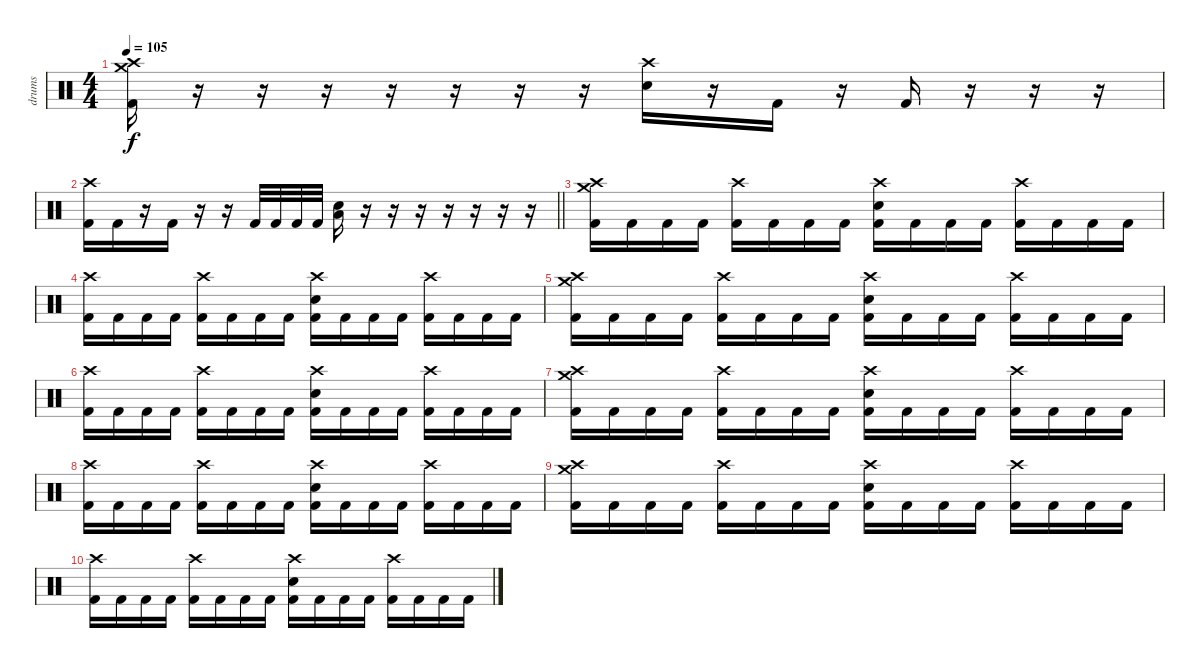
\track ("drums" "drums") {instrument percussion}
\staff {score}
\articulation defaults
\ts (4 4)
\tempo 105
\clef neutral
\ks c
("Crash medium (hit)" "Crash high (hit)" "Kick (hit) 2").16{dy f} r.16 r.16 r.16 r.16 r.16 r.16 r.16 ("Crash high (hit)" "Electric Snare (hit)").16 r.16 "Kick (hit) 2".16 r.16 "Kick (hit) 2".16 r.16 r.16 r.16 |
\barLineRight lightlight
("Crash high (hit)" "Kick (hit) 2").16 "Kick (hit) 2".16 r.16 "Kick (hit) 2".16 r.16 r.16 "Kick (hit) 2".32 "Kick (hit) 2".32 "Kick (hit) 2".32 "Kick (hit) 2".32 ("Low Floor Tom (hit)" "Electric Snare (hit)").16 r.16 r.16 r.16 r.16 r.16 r.16 r.16 |
\section ("" "")
("Crash medium (hit)" "Crash high (hit)" "Kick (hit) 2").16 "Kick (hit) 2".16 "Kick (hit) 2".16 "Kick (hit) 2".16 ("Crash high (hit)" "Kick (hit) 2").16 "Kick (hit) 2".16 "Kick (hit) 2".16 "Kick (hit) 2".16 ("Electric Snare (hit)" "Crash high (hit)" "Kick (hit) 2").16 "Kick (hit) 2".16 "Kick (hit) 2".16 "Kick (hit) 2".16 ("Crash high (hit)" "Kick (hit) 2").16 "Kick (hit) 2".16 "Kick (hit) 2".16 "Kick (hit) 2".16 |
("Crash high (hit)" "Kick (hit) 2").16 "Kick (hit) 2".16 "Kick (hit) 2".16 "Kick (hit) 2".16 ("Crash high (hit)" "Kick (hit) 2").16 "Kick (hit) 2".16 "Kick (hit) 2".16 "Kick (hit) 2".16 ("Electric Snare (hit)" "Crash high (hit)" "Kick (hit) 2").16 "Kick (hit) 2".16 "Kick (hit) 2".16 "Kick (hit) 2".16 ("Crash high (hit)" "Kick (hit) 2").16 "Kick (hit) 2".16 "Kick (hit) 2".16 "Kick (hit) 2".16 |
("Crash medium (hit)" "Crash high (hit)" "Kick (hit) 2").16 "Kick (hit) 2".16 "Kick (hit) 2".16 "Kick (hit) 2".16 ("Crash high (hit)" "Kick (hit) 2").16 "Kick (hit) 2".16 "Kick (hit) 2".16 "Kick (hit) 2".16 ("Electric Snare (hit)" "Crash high (hit)" "Kick (hit) 2").16 "Kick (hit) 2".16 "Kick (hit) 2".16 "Kick (hit) 2".16 ("Crash high (hit)" "Kick (hit) 2").16 "Kick (hit) 2".16 "Kick (hit) 2".16 "Kick (hit) 2".16 |
("Crash high (hit)" "Kick (hit) 2").16 "Kick (hit) 2".16 "Kick (hit) 2".16 "Kick (hit) 2".16 ("Crash high (hit)" "Kick (hit) 2").16 "Kick (hit) 2".16 "Kick (hit) 2".16 "Kick (hit) 2".16 ("Electric Snare (hit)" "Crash high (hit)" "Kick (hit) 2").16 "Kick (hit) 2".16 "Kick (hit) 2".16 "Kick (hit) 2".16 ("Crash high (hit)" "Kick (hit) 2").16 "Kick (hit) 2".16 "Kick (hit) 2".16 "Kick (hit) 2".16 |
("Crash medium (hit)" "Crash high (hit)" "Kick (hit) 2").16 "Kick (hit) 2".16 "Kick (hit) 2".16 "Kick (hit) 2".16 ("Crash high (hit)" "Kick (hit) 2").16 "Kick (hit) 2".16 "Kick (hit) 2".16 "Kick (hit) 2".16 ("Electric Snare (hit)" "Crash high (hit)" "Kick (hit) 2").16 "Kick (hit) 2".16 "Kick (hit) 2".16 "Kick (hit) 2".16 ("Crash high (hit)" "Kick (hit) 2").16 "Kick (hit) 2".16 "Kick (hit) 2".16 "Kick (hit) 2".16 |
("Crash high (hit)" "Kick (hit) 2").16 "Kick (hit) 2".16 "Kick (hit) 2".16 "Kick (hit) 2".16 ("Crash high (hit)" "Kick (hit) 2").16 "Kick (hit) 2".16 "Kick (hit) 2".16 "Kick (hit) 2".16 ("Electric Snare (hit)" "Crash high (hit)" "Kick (hit) 2").16 "Kick (hit) 2".16 "Kick (hit) 2".16 "Kick (hit) 2".16 ("Crash high (hit)" "Kick (hit) 2").16 "Kick (hit) 2".16 "Kick (hit) 2".16 "Kick (hit) 2".16 |
("Crash medium (hit)" "Crash high (hit)" "Kick (hit) 2").16 "Kick (hit) 2".16 "Kick (hit) 2".16 "Kick (hit) 2".16 ("Crash high (hit)" "Kick (hit) 2").16 "Kick (hit) 2".16 "Kick (hit) 2".16 "Kick (hit) 2".16 ("Electric Snare (hit)" "Crash high (hit)" "Kick (hit) 2").16 "Kick (hit) 2".16 "Kick (hit) 2".16 "Kick (hit) 2".16 ("Crash high (hit)" "Kick (hit) 2").16 "Kick (hit) 2".16 "Kick (hit) 2".16 "Kick (hit) 2".16 |
("Crash high (hit)" "Kick (hit) 2").16 "Kick (hit) 2".16 "Kick (hit) 2".16 "Kick (hit) 2".16 ("Crash high (hit)" "Kick (hit) 2").16 "Kick (hit) 2".16 "Kick (hit) 2".16 "Kick (hit) 2".16 ("Electric Snare (hit)" "Crash high (hit)" "Kick (hit) 2").16 "Kick (hit) 2".16 "Kick (hit) 2".16 "Kick (hit) 2".16 ("Crash high (hit)" "Kick (hit) 2").16 "Kick (hit) 2".16 "Kick (hit) 2".16 "Kick (hit) 2".16
